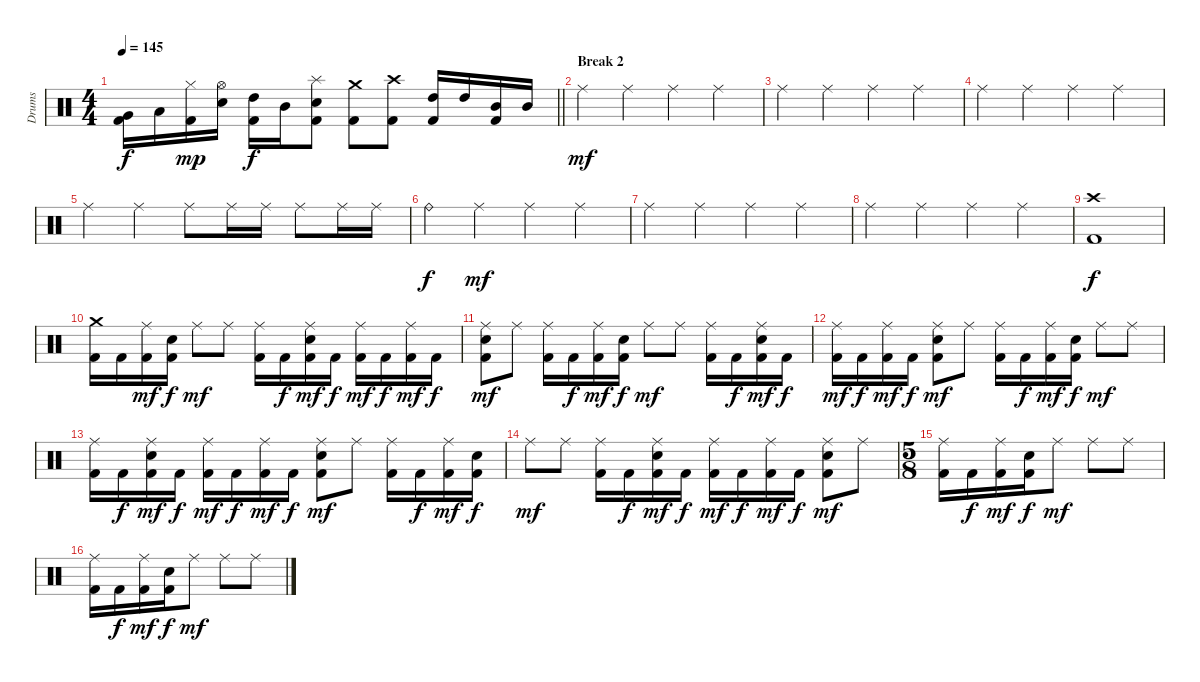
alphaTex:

\track ("Drums" "Drums") {instrument percussion}
\staff {score}
\articulation defaults
\ts (4 4)
\tempo 145
\clef neutral
\barLineRight lightlight
\ks c
("Very Low Tom (hit)" "Kick (hit) 2").16{dy f} "Low Floor Tom (hit)".16 ("Hi-Hat (closed)" "Kick (hit) 2").16{dy mp} ("Hi-Hat (open)" "Snare (hit) 2").16 ("High Tom (hit)" "Kick (hit) 2").16{dy f} "Mid Tom (hit)".16 ("Splash (hit)" "Snare (hit) 2" "Kick (hit) 2").8 ("Crash medium (hit)" "Kick (hit) 2").8 ("Crash high (hit)" "Kick (hit) 2").8 ("High Tom (hit)" "Kick (hit) 2").16 "High Tom (hit)".16 ("Mid Tom (hit)" "Kick (hit) 2").16 "Mid Tom (hit)".16 |
\section ("" "Break 2")
"Ride (middle)".4{dy mf} "Ride (middle)".4 "Ride (middle)".4 "Ride (middle)".4 |
"Ride (middle)".4 "Ride (middle)".4 "Ride (middle)".4 "Ride (middle)".4 |
"Ride (middle)".4 "Ride (middle)".4 "Ride (middle)".4 "Ride (middle)".4 |
"Ride (middle)".4 "Ride (middle)".4 "Ride (middle)".8 "Ride (middle)".16 "Ride (middle)".16 "Ride (middle)".8 "Ride (middle)".16 "Ride (middle)".16 |
"Ride (bell)".4{dy f} "Ride (middle)".4{dy mf} "Ride (middle)".4 "Ride (middle)".4 |
"Ride (middle)".4 "Ride (middle)".4 "Ride (middle)".4 "Ride (middle)".4 |
"Ride (middle)".4 "Ride (middle)".4 "Ride (middle)".4 "Ride (middle)".4 |
("Crash high (hit)" "Kick (hit) 2").1{dy f} |
("Crash medium (hit)" "Kick (hit) 2").16 "Kick (hit) 2".16 ("Ride (middle)" "Kick (hit) 2").16{dy mf} ("Snare (hit) 2" "Kick (hit) 2").16{dy f} "Ride (middle)".8{dy mf} "Ride (middle)".8 ("Ride (middle)" "Kick (hit) 2").16 "Kick (hit) 2".16{dy f} ("Ride (middle)" "Snare (hit) 2" "Kick (hit) 2").16{dy mf} "Kick (hit) 2".16{dy f} ("Ride (middle)" "Kick (hit) 2").16{dy mf} "Kick (hit) 2".16{dy f} ("Ride (middle)" "Kick (hit) 2").16{dy mf} "Kick (hit) 2".16{dy f} |
("Ride (middle)" "Snare (hit) 2" "Kick (hit) 2").8{dy mf} "Ride (middle)".8 ("Ride (middle)" "Kick (hit) 2").16 "Kick (hit) 2".16{dy f} ("Ride (middle)" "Kick (hit) 2").16{dy mf} ("Snare (hit) 2" "Kick (hit) 2").16{dy f} "Ride (middle)".8{dy mf} "Ride (middle)".8 ("Ride (middle)" "Kick (hit) 2").16 "Kick (hit) 2".16{dy f} ("Ride (middle)" "Snare (hit) 2" "Kick (hit) 2").16{dy mf} "Kick (hit) 2".16{dy f} |
("Ride (middle)" "Kick (hit) 2").16{dy mf} "Kick (hit) 2".16{dy f} ("Ride (middle)" "Kick (hit) 2").16{dy mf} "Kick (hit) 2".16{dy f} ("Ride (middle)" "Snare (hit) 2" "Kick (hit) 2").8{dy mf} "Ride (middle)".8 ("Ride (middle)" "Kick (hit) 2").16 "Kick (hit) 2".16{dy f} ("Ride (middle)" "Kick (hit) 2").16{dy mf} ("Snare (hit) 2" "Kick (hit) 2").16{dy f} "Ride (middle)".8{dy mf} "Ride (middle)".8 |
("Ride (middle)" "Kick (hit) 2").16 "Kick (hit) 2".16{dy f} ("Ride (middle)" "Snare (hit) 2" "Kick (hit) 2").16{dy mf} "Kick (hit) 2".16{dy f} ("Ride (middle)" "Kick (hit) 2").16{dy mf} "Kick (hit) 2".16{dy f} ("Ride (middle)" "Kick (hit) 2").16{dy mf} "Kick (hit) 2".16{dy f} ("Ride (middle)" "Snare (hit) 2" "Kick (hit) 2").8{dy mf} "Ride (middle)".8 ("Ride (middle)" "Kick (hit) 2").16 "Kick (hit) 2".16{dy f} ("Ride (middle)" "Kick (hit) 2").16{dy mf} ("Snare (hit) 2" "Kick (hit) 2").16{dy f} |
"Ride (middle)".8{dy mf} "Ride (middle)".8 ("Ride (middle)" "Kick (hit) 2").16 "Kick (hit) 2".16{dy f} ("Ride (middle)" "Snare (hit) 2" "Kick (hit) 2").16{dy mf} "Kick (hit) 2".16{dy f} ("Ride (middle)" "Kick (hit) 2").16{dy mf} "Kick (hit) 2".16{dy f} ("Ride (middle)" "Kick (hit) 2").16{dy mf} "Kick (hit) 2".16{dy f} ("Ride (middle)" "Snare (hit) 2" "Kick (hit) 2").8{dy mf} "Ride (middle)".8 |
\ts (5 8)
("Ride (middle)" "Kick (hit) 2").16 "Kick (hit) 2".16{dy f} ("Ride (middle)" "Kick (hit) 2").16{dy mf} ("Snare (hit) 2" "Kick (hit) 2").16{dy f} "Ride (middle)".8{dy mf} "Ride (middle)".8 "Ride (middle)".8 |
("Ride (middle)" "Kick (hit) 2").16 "Kick (hit) 2".16{dy f} ("Ride (middle)" "Kick (hit) 2").16{dy mf} ("Snare (hit) 2" "Kick (hit) 2").16{dy f} "Ride (middle)".8{dy mf} "Ride (middle)".8 "Ride (middle)".8
